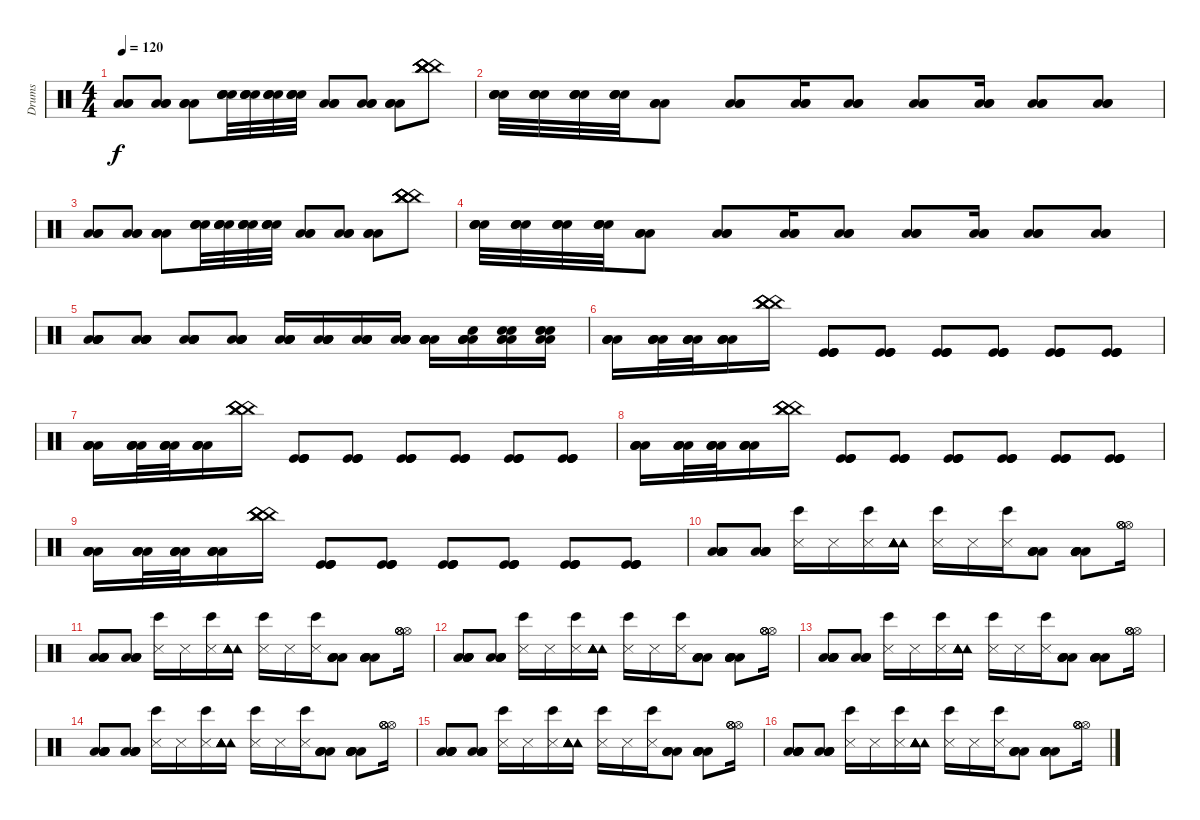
\track ("Drums" "Drums") {instrument percussion}
\staff {score}
\articulation defaults
\ts (4 4)
\tempo 120
\clef neutral
\ks c
("Low Floor Tom (hit)" "Low Floor Tom (hit)" "Low Floor Tom (hit)").8{dy f} ("Low Floor Tom (hit)" "Low Floor Tom (hit)" "Low Floor Tom (hit)").8 ("Low Floor Tom (hit)" "Low Floor Tom (hit)" "Low Floor Tom (hit)").8 ("Snare (hit) 2" "Snare (hit) 2" "Snare (hit) 2" "Snare (hit) 2").32 ("Snare (hit) 2" "Snare (hit) 2" "Snare (hit) 2" "Snare (hit) 2").32 ("Snare (hit) 2" "Snare (hit) 2" "Snare (hit) 2" "Snare (hit) 2").32 ("Snare (hit) 2" "Snare (hit) 2" "Snare (hit) 2" "Snare (hit) 2").32 ("Low Floor Tom (hit)" "Low Floor Tom (hit)" "Low Floor Tom (hit)").8 ("Low Floor Tom (hit)" "Low Floor Tom (hit)" "Low Floor Tom (hit)").8 ("Low Floor Tom (hit)" "Low Floor Tom (hit)" "Low Floor Tom (hit)").8 ("China (hit)" "China (hit)" "China (hit)" "China (hit)" "China (hit)" "China (hit)").8 |
("Snare (hit) 2" "Snare (hit) 2" "Snare (hit) 2" "Snare (hit) 2").32 ("Snare (hit) 2" "Snare (hit) 2" "Snare (hit) 2" "Snare (hit) 2").32 ("Snare (hit) 2" "Snare (hit) 2" "Snare (hit) 2" "Snare (hit) 2").32 ("Snare (hit) 2" "Snare (hit) 2" "Snare (hit) 2" "Snare (hit) 2").32 ("Low Floor Tom (hit)" "Low Floor Tom (hit)" "Low Floor Tom (hit)").8 ("Low Floor Tom (hit)" "Low Floor Tom (hit)" "Low Floor Tom (hit)").8 ("Low Floor Tom (hit)" "Low Floor Tom (hit)" "Low Floor Tom (hit)").16 ("Low Floor Tom (hit)" "Low Floor Tom (hit)" "Low Floor Tom (hit)").8 ("Low Floor Tom (hit)" "Low Floor Tom (hit)" "Low Floor Tom (hit)").8 ("Low Floor Tom (hit)" "Low Floor Tom (hit)" "Low Floor Tom (hit)").16 ("Low Floor Tom (hit)" "Low Floor Tom (hit)" "Low Floor Tom (hit)").8 ("Low Floor Tom (hit)" "Low Floor Tom (hit)" "Low Floor Tom (hit)").8 |
("Low Floor Tom (hit)" "Low Floor Tom (hit)" "Low Floor Tom (hit)").8 ("Low Floor Tom (hit)" "Low Floor Tom (hit)" "Low Floor Tom (hit)").8 ("Low Floor Tom (hit)" "Low Floor Tom (hit)" "Low Floor Tom (hit)").8 ("Snare (hit) 2" "Snare (hit) 2" "Snare (hit) 2" "Snare (hit) 2").32 ("Snare (hit) 2" "Snare (hit) 2" "Snare (hit) 2" "Snare (hit) 2").32 ("Snare (hit) 2" "Snare (hit) 2" "Snare (hit) 2" "Snare (hit) 2").32 ("Snare (hit) 2" "Snare (hit) 2" "Snare (hit) 2" "Snare (hit) 2").32 ("Low Floor Tom (hit)" "Low Floor Tom (hit)" "Low Floor Tom (hit)").8 ("Low Floor Tom (hit)" "Low Floor Tom (hit)" "Low Floor Tom (hit)").8 ("Low Floor Tom (hit)" "Low Floor Tom (hit)" "Low Floor Tom (hit)").8 ("China (hit)" "China (hit)" "China (hit)" "China (hit)" "China (hit)" "China (hit)").8 |
("Snare (hit) 2" "Snare (hit) 2" "Snare (hit) 2" "Snare (hit) 2").32 ("Snare (hit) 2" "Snare (hit) 2" "Snare (hit) 2" "Snare (hit) 2").32 ("Snare (hit) 2" "Snare (hit) 2" "Snare (hit) 2" "Snare (hit) 2").32 ("Snare (hit) 2" "Snare (hit) 2" "Snare (hit) 2" "Snare (hit) 2").32 ("Low Floor Tom (hit)" "Low Floor Tom (hit)" "Low Floor Tom (hit)").8 ("Low Floor Tom (hit)" "Low Floor Tom (hit)" "Low Floor Tom (hit)").8 ("Low Floor Tom (hit)" "Low Floor Tom (hit)" "Low Floor Tom (hit)").16 ("Low Floor Tom (hit)" "Low Floor Tom (hit)" "Low Floor Tom (hit)").8 ("Low Floor Tom (hit)" "Low Floor Tom (hit)" "Low Floor Tom (hit)").8 ("Low Floor Tom (hit)" "Low Floor Tom (hit)" "Low Floor Tom (hit)").16 ("Low Floor Tom (hit)" "Low Floor Tom (hit)" "Low Floor Tom (hit)").8 ("Low Floor Tom (hit)" "Low Floor Tom (hit)" "Low Floor Tom (hit)").8 |
("Low Floor Tom (hit)" "Low Floor Tom (hit)" "Low Floor Tom (hit)" "Low Floor Tom (hit)" "Low Floor Tom (hit)").8 ("Low Floor Tom (hit)" "Low Floor Tom (hit)" "Low Floor Tom (hit)" "Low Floor Tom (hit)" "Low Floor Tom (hit)").8 ("Low Floor Tom (hit)" "Low Floor Tom (hit)" "Low Floor Tom (hit)" "Low Floor Tom (hit)" "Low Floor Tom (hit)").8 ("Low Floor Tom (hit)" "Low Floor Tom (hit)" "Low Floor Tom (hit)" "Low Floor Tom (hit)" "Low Floor Tom (hit)").8 ("Low Floor Tom (hit)" "Low Floor Tom (hit)" "Low Floor Tom (hit)" "Low Floor Tom (hit)" "Low Floor Tom (hit)").16 ("Low Floor Tom (hit)" "Low Floor Tom (hit)" "Low Floor Tom (hit)" "Low Floor Tom (hit)" "Low Floor Tom (hit)").16 ("Low Floor Tom (hit)" "Low Floor Tom (hit)" "Low Floor Tom (hit)" "Low Floor Tom (hit)" "Low Floor Tom (hit)").16 ("Low Floor Tom (hit)" "Low Floor Tom (hit)" "Low Floor Tom (hit)" "Low Floor Tom (hit)" "Low Floor Tom (hit)").16 ("Low Floor Tom (hit)" "Low Floor Tom (hit)" "Low Floor Tom (hit)" "Low Floor Tom (hit)" "Low Floor Tom (hit)").16 ("Low Floor Tom (hit)" "Low Floor Tom (hit)" "Low Floor Tom (hit)" "Snare (hit) 2" "Low Floor Tom (hit)").16 ("Low Floor Tom (hit)" "Low Floor Tom (hit)" "Snare (hit) 2" "Snare (hit) 2" "Low Floor Tom (hit)").16 ("Low Floor Tom (hit)" "Snare (hit) 2" "Snare (hit) 2" "Snare (hit) 2" "Low Floor Tom (hit)").16 |
("Low Floor Tom (hit)" "Low Floor Tom (hit)" "Low Floor Tom (hit)" "Low Floor Tom (hit)").16 ("Low Floor Tom (hit)" "Low Floor Tom (hit)" "Low Floor Tom (hit)" "Low Floor Tom (hit)").32 ("Low Floor Tom (hit)" "Low Floor Tom (hit)" "Low Floor Tom (hit)" "Low Floor Tom (hit)").32 ("Low Floor Tom (hit)" "Low Floor Tom (hit)" "Low Floor Tom (hit)" "Low Floor Tom (hit)").16 ("China (hit)" "China (hit)" "China (hit)" "China (hit)").16 ("Kick (hit)" "Kick (hit)" "Kick (hit)" "Kick (hit)").8 ("Kick (hit)" "Kick (hit)" "Kick (hit)" "Kick (hit)").8 ("Kick (hit)" "Kick (hit)" "Kick (hit)" "Kick (hit)").8 ("Kick (hit)" "Kick (hit)" "Kick (hit)" "Kick (hit)").8 ("Kick (hit)" "Kick (hit)" "Kick (hit)" "Kick (hit)").8 ("Kick (hit)" "Kick (hit)" "Kick (hit)" "Kick (hit)").8 |
("Low Floor Tom (hit)" "Low Floor Tom (hit)" "Low Floor Tom (hit)" "Low Floor Tom (hit)").16 ("Low Floor Tom (hit)" "Low Floor Tom (hit)" "Low Floor Tom (hit)" "Low Floor Tom (hit)").32 ("Low Floor Tom (hit)" "Low Floor Tom (hit)" "Low Floor Tom (hit)" "Low Floor Tom (hit)").32 ("Low Floor Tom (hit)" "Low Floor Tom (hit)" "Low Floor Tom (hit)" "Low Floor Tom (hit)").16 ("China (hit)" "China (hit)" "China (hit)" "China (hit)").16 ("Kick (hit)" "Kick (hit)" "Kick (hit)" "Kick (hit)").8 ("Kick (hit)" "Kick (hit)" "Kick (hit)" "Kick (hit)").8 ("Kick (hit)" "Kick (hit)" "Kick (hit)" "Kick (hit)").8 ("Kick (hit)" "Kick (hit)" "Kick (hit)" "Kick (hit)").8 ("Kick (hit)" "Kick (hit)" "Kick (hit)" "Kick (hit)").8 ("Kick (hit)" "Kick (hit)" "Kick (hit)" "Kick (hit)").8 |
("Low Floor Tom (hit)" "Low Floor Tom (hit)" "Low Floor Tom (hit)" "Low Floor Tom (hit)").16 ("Low Floor Tom (hit)" "Low Floor Tom (hit)" "Low Floor Tom (hit)" "Low Floor Tom (hit)").32 ("Low Floor Tom (hit)" "Low Floor Tom (hit)" "Low Floor Tom (hit)" "Low Floor Tom (hit)").32 ("Low Floor Tom (hit)" "Low Floor Tom (hit)" "Low Floor Tom (hit)" "Low Floor Tom (hit)").16 ("China (hit)" "China (hit)" "China (hit)" "China (hit)").16 ("Kick (hit)" "Kick (hit)" "Kick (hit)" "Kick (hit)").8 ("Kick (hit)" "Kick (hit)" "Kick (hit)" "Kick (hit)").8 ("Kick (hit)" "Kick (hit)" "Kick (hit)" "Kick (hit)").8 ("Kick (hit)" "Kick (hit)" "Kick (hit)" "Kick (hit)").8 ("Kick (hit)" "Kick (hit)" "Kick (hit)" "Kick (hit)").8 ("Kick (hit)" "Kick (hit)" "Kick (hit)" "Kick (hit)").8 |
("Low Floor Tom (hit)" "Low Floor Tom (hit)" "Low Floor Tom (hit)" "Low Floor Tom (hit)").16 ("Low Floor Tom (hit)" "Low Floor Tom (hit)" "Low Floor Tom (hit)" "Low Floor Tom (hit)").32 ("Low Floor Tom (hit)" "Low Floor Tom (hit)" "Low Floor Tom (hit)" "Low Floor Tom (hit)").32 ("Low Floor Tom (hit)" "Low Floor Tom (hit)" "Low Floor Tom (hit)" "Low Floor Tom (hit)").16 ("China (hit)" "China (hit)" "China (hit)" "China (hit)").16 ("Kick (hit)" "Kick (hit)" "Kick (hit)" "Kick (hit)").8 ("Kick (hit)" "Kick (hit)" "Kick (hit)" "Kick (hit)").8 ("Kick (hit)" "Kick (hit)" "Kick (hit)" "Kick (hit)").8 ("Kick (hit)" "Kick (hit)" "Kick (hit)" "Kick (hit)").8 ("Kick (hit)" "Kick (hit)" "Kick (hit)" "Kick (hit)").8 ("Kick (hit)" "Kick (hit)" "Kick (hit)" "Kick (hit)").8 |
("Low Floor Tom (hit)" "Low Floor Tom (hit)" "Low Floor Tom (hit)" "Low Floor Tom (hit)" "Low Floor Tom (hit)").8 ("Low Floor Tom (hit)" "Low Floor Tom (hit)" "Low Floor Tom (hit)" "Low Floor Tom (hit)").8 ("Bongo High (hit)" "Snare (side stick) 3").16 "Snare (side stick) 3".16 ("Bongo High (hit)" "Snare (side stick) 3").16 ("Tambourine (hit)" "Tambourine (hit)" "Tambourine (hit)" "Tambourine (hit)" "Tambourine (hit)" "Tambourine (hit)").16 ("Bongo High (hit)" "Snare (side stick) 3").16 "Snare (side stick) 3".16 ("Bongo High (hit)" "Snare (side stick) 3").16 ("Low Floor Tom (hit)" "Low Floor Tom (hit)" "Low Floor Tom (hit)" "Low Floor Tom (hit)").8 ("Low Floor Tom (hit)" "Low Floor Tom (hit)" "Low Floor Tom (hit)" "Low Floor Tom (hit)" "Low Floor Tom (hit)").8 ("Hi-Hat (open)" "Hi-Hat (open)" "Hi-Hat (open)" "Hi-Hat (open)").16 |
("Low Floor Tom (hit)" "Low Floor Tom (hit)" "Low Floor Tom (hit)" "Low Floor Tom (hit)" "Low Floor Tom (hit)").8 ("Low Floor Tom (hit)" "Low Floor Tom (hit)" "Low Floor Tom (hit)" "Low Floor Tom (hit)").8 ("Bongo High (hit)" "Snare (side stick) 3").16 "Snare (side stick) 3".16 ("Bongo High (hit)" "Snare (side stick) 3").16 ("Tambourine (hit)" "Tambourine (hit)" "Tambourine (hit)" "Tambourine (hit)" "Tambourine (hit)" "Tambourine (hit)").16 ("Bongo High (hit)" "Snare (side stick) 3").16 "Snare (side stick) 3".16 ("Bongo High (hit)" "Snare (side stick) 3").16 ("Low Floor Tom (hit)" "Low Floor Tom (hit)" "Low Floor Tom (hit)" "Low Floor Tom (hit)").8 ("Low Floor Tom (hit)" "Low Floor Tom (hit)" "Low Floor Tom (hit)" "Low Floor Tom (hit)" "Low Floor Tom (hit)").8 ("Hi-Hat (open)" "Hi-Hat (open)" "Hi-Hat (open)" "Hi-Hat (open)").16 |
("Low Floor Tom (hit)" "Low Floor Tom (hit)" "Low Floor Tom (hit)" "Low Floor Tom (hit)" "Low Floor Tom (hit)").8 ("Low Floor Tom (hit)" "Low Floor Tom (hit)" "Low Floor Tom (hit)" "Low Floor Tom (hit)").8 ("Bongo High (hit)" "Snare (side stick) 3").16 "Snare (side stick) 3".16 ("Bongo High (hit)" "Snare (side stick) 3").16 ("Tambourine (hit)" "Tambourine (hit)" "Tambourine (hit)" "Tambourine (hit)" "Tambourine (hit)" "Tambourine (hit)").16 ("Bongo High (hit)" "Snare (side stick) 3").16 "Snare (side stick) 3".16 ("Bongo High (hit)" "Snare (side stick) 3").16 ("Low Floor Tom (hit)" "Low Floor Tom (hit)" "Low Floor Tom (hit)" "Low Floor Tom (hit)").8 ("Low Floor Tom (hit)" "Low Floor Tom (hit)" "Low Floor Tom (hit)" "Low Floor Tom (hit)" "Low Floor Tom (hit)").8 ("Hi-Hat (open)" "Hi-Hat (open)" "Hi-Hat (open)" "Hi-Hat (open)").16 |
("Low Floor Tom (hit)" "Low Floor Tom (hit)" "Low Floor Tom (hit)" "Low Floor Tom (hit)" "Low Floor Tom (hit)").8 ("Low Floor Tom (hit)" "Low Floor Tom (hit)" "Low Floor Tom (hit)" "Low Floor Tom (hit)").8 ("Bongo High (hit)" "Snare (side stick) 3").16 "Snare (side stick) 3".16 ("Bongo High (hit)" "Snare (side stick) 3").16 ("Tambourine (hit)" "Tambourine (hit)" "Tambourine (hit)" "Tambourine (hit)" "Tambourine (hit)" "Tambourine (hit)").16 ("Bongo High (hit)" "Snare (side stick) 3").16 "Snare (side stick) 3".16 ("Bongo High (hit)" "Snare (side stick) 3").16 ("Low Floor Tom (hit)" "Low Floor Tom (hit)" "Low Floor Tom (hit)" "Low Floor Tom (hit)").8 ("Low Floor Tom (hit)" "Low Floor Tom (hit)" "Low Floor Tom (hit)" "Low Floor Tom (hit)" "Low Floor Tom (hit)").8 ("Hi-Hat (open)" "Hi-Hat (open)" "Hi-Hat (open)" "Hi-Hat (open)").16 |
("Low Floor Tom (hit)" "Low Floor Tom (hit)" "Low Floor Tom (hit)" "Low Floor Tom (hit)" "Low Floor Tom (hit)").8 ("Low Floor Tom (hit)" "Low Floor Tom (hit)" "Low Floor Tom (hit)" "Low Floor Tom (hit)").8 ("Bongo High (hit)" "Snare (side stick) 3").16 "Snare (side stick) 3".16 ("Bongo High (hit)" "Snare (side stick) 3").16 ("Tambourine (hit)" "Tambourine (hit)" "Tambourine (hit)" "Tambourine (hit)" "Tambourine (hit)" "Tambourine (hit)").16 ("Bongo High (hit)" "Snare (side stick) 3").16 "Snare (side stick) 3".16 ("Bongo High (hit)" "Snare (side stick) 3").16 ("Low Floor Tom (hit)" "Low Floor Tom (hit)" "Low Floor Tom (hit)" "Low Floor Tom (hit)").8 ("Low Floor Tom (hit)" "Low Floor Tom (hit)" "Low Floor Tom (hit)" "Low Floor Tom (hit)" "Low Floor Tom (hit)").8 ("Hi-Hat (open)" "Hi-Hat (open)" "Hi-Hat (open)" "Hi-Hat (open)").16 |
("Low Floor Tom (hit)" "Low Floor Tom (hit)" "Low Floor Tom (hit)" "Low Floor Tom (hit)" "Low Floor Tom (hit)").8 ("Low Floor Tom (hit)" "Low Floor Tom (hit)" "Low Floor Tom (hit)" "Low Floor Tom (hit)").8 ("Bongo High (hit)" "Snare (side stick) 3").16 "Snare (side stick) 3".16 ("Bongo High (hit)" "Snare (side stick) 3").16 ("Tambourine (hit)" "Tambourine (hit)" "Tambourine (hit)" "Tambourine (hit)" "Tambourine (hit)" "Tambourine (hit)").16 ("Bongo High (hit)" "Snare (side stick) 3").16 "Snare (side stick) 3".16 ("Bongo High (hit)" "Snare (side stick) 3").16 ("Low Floor Tom (hit)" "Low Floor Tom (hit)" "Low Floor Tom (hit)" "Low Floor Tom (hit)").8 ("Low Floor Tom (hit)" "Low Floor Tom (hit)" "Low Floor Tom (hit)" "Low Floor Tom (hit)" "Low Floor Tom (hit)").8 ("Hi-Hat (open)" "Hi-Hat (open)" "Hi-Hat (open)" "Hi-Hat (open)").16 |
("Low Floor Tom (hit)" "Low Floor Tom (hit)" "Low Floor Tom (hit)" "Low Floor Tom (hit)" "Low Floor Tom (hit)").8 ("Low Floor Tom (hit)" "Low Floor Tom (hit)" "Low Floor Tom (hit)" "Low Floor Tom (hit)").8 ("Bongo High (hit)" "Snare (side stick) 3").16 "Snare (side stick) 3".16 ("Bongo High (hit)" "Snare (side stick) 3").16 ("Tambourine (hit)" "Tambourine (hit)" "Tambourine (hit)" "Tambourine (hit)" "Tambourine (hit)" "Tambourine (hit)").16 ("Bongo High (hit)" "Snare (side stick) 3").16 "Snare (side stick) 3".16 ("Bongo High (hit)" "Snare (side stick) 3").16 ("Low Floor Tom (hit)" "Low Floor Tom (hit)" "Low Floor Tom (hit)" "Low Floor Tom (hit)").8 ("Low Floor Tom (hit)" "Low Floor Tom (hit)" "Low Floor Tom (hit)" "Low Floor Tom (hit)" "Low Floor Tom (hit)").8 ("Hi-Hat (open)" "Hi-Hat (open)" "Hi-Hat (open)" "Hi-Hat (open)").16
